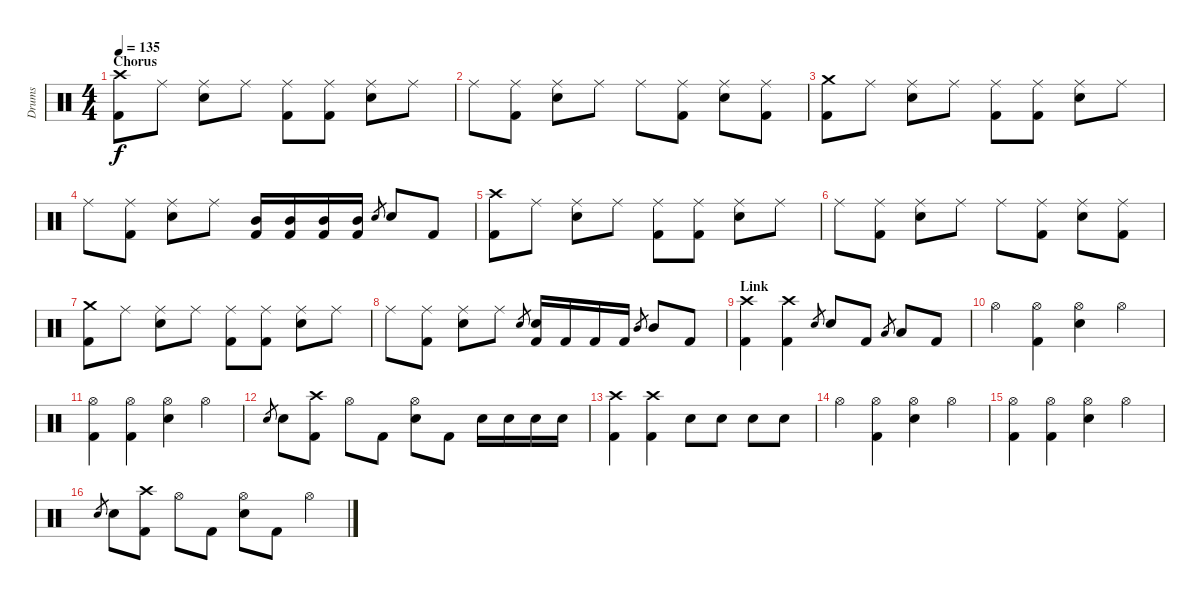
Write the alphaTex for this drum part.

\track ("Drums" "Drums") {instrument percussion}
\staff {score}
\articulation defaults
\ts (4 4)
\section ("" "Chorus")
\tempo 135
\clef neutral
\ks c
("Crash high (hit)" "Kick (hit) 2").8{dy f} "Ride (middle)".8 ("Ride (middle)" "Electric Snare (hit)").8 "Ride (middle)".8 ("Ride (middle)" "Kick (hit) 2").8 ("Ride (middle)" "Kick (hit) 2").8 ("Ride (middle)" "Electric Snare (hit)").8 "Ride (middle)".8 |
"Ride (middle)".8 ("Ride (middle)" "Kick (hit) 2").8 ("Ride (middle)" "Electric Snare (hit)").8 "Ride (middle)".8 "Ride (middle)".8 ("Ride (middle)" "Kick (hit) 2").8 ("Ride (middle)" "Electric Snare (hit)").8 ("Ride (middle)" "Kick (hit) 2").8 |
("Crash medium (hit)" "Kick (hit) 2").8 "Ride (middle)".8 ("Ride (middle)" "Electric Snare (hit)").8 "Ride (middle)".8 ("Ride (middle)" "Kick (hit) 2").8 ("Ride (middle)" "Kick (hit) 2").8 ("Ride (middle)" "Electric Snare (hit)").8 "Ride (middle)".8 |
"Ride (middle)".8 ("Ride (middle)" "Kick (hit) 2").8 ("Ride (middle)" "Electric Snare (hit)").8 "Ride (middle)".8 ("Mid Tom (hit)" "Kick (hit) 2").16 ("Mid Tom (hit)" "Kick (hit) 2").16 ("Mid Tom (hit)" "Kick (hit) 2").16 ("Mid Tom (hit)" "Kick (hit) 2").16 "Electric Snare (hit)".8{gr} "Electric Snare (hit)".8 "Kick (hit) 2".8 |
("Crash high (hit)" "Kick (hit) 2").8 "Ride (middle)".8 ("Ride (middle)" "Electric Snare (hit)").8 "Ride (middle)".8 ("Ride (middle)" "Kick (hit) 2").8 ("Ride (middle)" "Kick (hit) 2").8 ("Ride (middle)" "Electric Snare (hit)").8 "Ride (middle)".8 |
"Ride (middle)".8 ("Ride (middle)" "Kick (hit) 2").8 ("Ride (middle)" "Electric Snare (hit)").8 "Ride (middle)".8 "Ride (middle)".8 ("Ride (middle)" "Kick (hit) 2").8 ("Ride (middle)" "Electric Snare (hit)").8 ("Ride (middle)" "Kick (hit) 2").8 |
("Crash medium (hit)" "Kick (hit) 2").8 "Ride (middle)".8 ("Ride (middle)" "Electric Snare (hit)").8 "Ride (middle)".8 ("Ride (middle)" "Kick (hit) 2").8 ("Ride (middle)" "Kick (hit) 2").8 ("Ride (middle)" "Electric Snare (hit)").8 "Ride (middle)".8 |
"Ride (middle)".8 ("Ride (middle)" "Kick (hit) 2").8 ("Ride (middle)" "Electric Snare (hit)").8 "Ride (middle)".8 "Electric Snare (hit)".8{gr} ("Electric Snare (hit)" "Kick (hit) 2").16 "Kick (hit) 2".16 "Kick (hit) 2".16 "Kick (hit) 2".16 "Mid Tom (hit)".8{gr} "Mid Tom (hit)".8 "Kick (hit) 2".8 |
\section ("" "Link")
("Crash high (hit)" "Kick (hit) 2").4 ("Crash high (hit)" "Kick (hit) 2").4 "Electric Snare (hit)".8{gr} "Electric Snare (hit)".8 "Kick (hit) 2".8 "Low Tom (hit)".8{gr} "Low Tom (hit)".8 "Kick (hit) 2".8 |
"Hi-Hat (open)".4 ("Hi-Hat (open)" "Kick (hit) 2").4 ("Hi-Hat (open)" "Electric Snare (hit)").4 "Hi-Hat (open)".4 |
("Hi-Hat (open)" "Kick (hit) 2").4 ("Hi-Hat (open)" "Kick (hit) 2").4 ("Hi-Hat (open)" "Electric Snare (hit)").4 "Hi-Hat (open)".4 |
"Electric Snare (hit)".8{gr} "Electric Snare (hit)".8 ("Crash high (hit)" "Kick (hit) 2").8 "Hi-Hat (open)".8 "Kick (hit) 2".8 ("Hi-Hat (open)" "Electric Snare (hit)").8 "Kick (hit) 2".8 "Electric Snare (hit)".16 "Electric Snare (hit)".16 "Electric Snare (hit)".16 "Electric Snare (hit)".16 |
("Crash high (hit)" "Kick (hit) 2").4 ("Crash high (hit)" "Kick (hit) 2").4 "Electric Snare (hit)".8 "Electric Snare (hit)".8 "Electric Snare (hit)".8 "Electric Snare (hit)".8 |
"Hi-Hat (open)".4 ("Hi-Hat (open)" "Kick (hit) 2").4 ("Hi-Hat (open)" "Electric Snare (hit)").4 "Hi-Hat (open)".4 |
("Hi-Hat (open)" "Kick (hit) 2").4 ("Hi-Hat (open)" "Kick (hit) 2").4 ("Hi-Hat (open)" "Electric Snare (hit)").4 "Hi-Hat (open)".4 |
"Electric Snare (hit)".8{gr} "Electric Snare (hit)".8 ("Crash high (hit)" "Kick (hit) 2").8 "Hi-Hat (open)".8 "Kick (hit) 2".8 ("Hi-Hat (open)" "Electric Snare (hit)").8 "Kick (hit) 2".8 "Hi-Hat (open)".4
